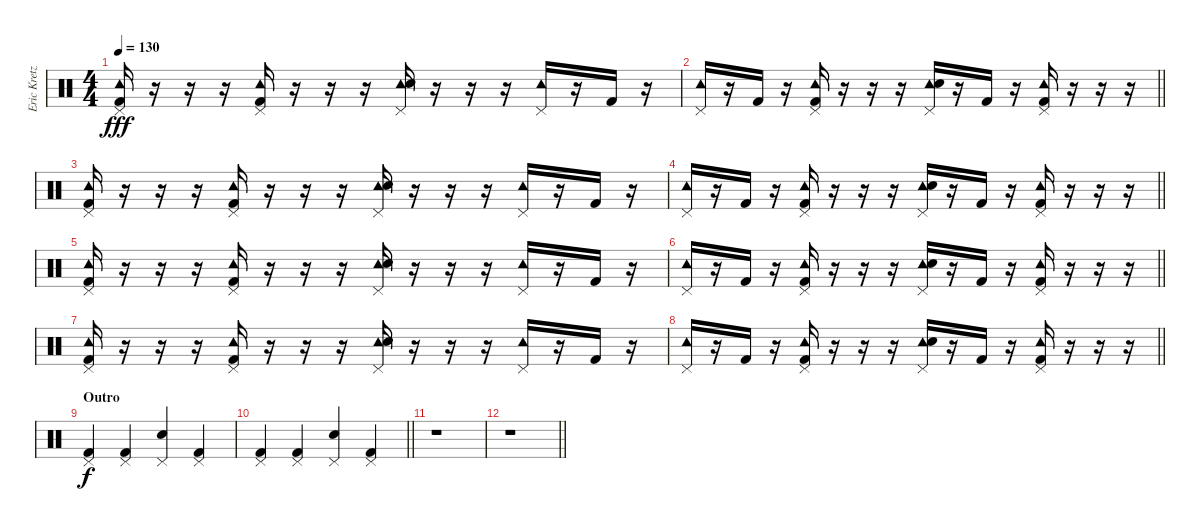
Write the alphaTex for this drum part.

\track ("Eric Kretz (Drums)" "Eric Kretz") {instrument percussion}
\staff {score}
\articulation defaults
\ts (4 4)
\tempo 130
\clef neutral
\ks c
("Pedal Hi-Hat (hit)" "Tambourine (hit)" "Kick (hit) 2").16{dy fff} r.16 r.16 r.16 ("Pedal Hi-Hat (hit)" "Tambourine (hit)" "Kick (hit) 2").16 r.16 r.16 r.16 ("Pedal Hi-Hat (hit)" "Tambourine (hit)" "Electric Snare (hit)").16 r.16 r.16 r.16 ("Pedal Hi-Hat (hit)" "Tambourine (hit)").16 r.16 "Kick (hit) 2".16 r.16 |
\barLineRight lightlight
("Pedal Hi-Hat (hit)" "Tambourine (hit)").16 r.16 "Kick (hit) 2".16 r.16 ("Pedal Hi-Hat (hit)" "Tambourine (hit)" "Kick (hit) 2").16 r.16 r.16 r.16 ("Pedal Hi-Hat (hit)" "Tambourine (hit)" "Electric Snare (hit)").16 r.16 "Kick (hit) 2".16 r.16 ("Pedal Hi-Hat (hit)" "Tambourine (hit)" "Kick (hit) 2").16 r.16 r.16 r.16 |
("Pedal Hi-Hat (hit)" "Tambourine (hit)" "Kick (hit) 2").16 r.16 r.16 r.16 ("Pedal Hi-Hat (hit)" "Tambourine (hit)" "Kick (hit) 2").16 r.16 r.16 r.16 ("Pedal Hi-Hat (hit)" "Tambourine (hit)" "Electric Snare (hit)").16 r.16 r.16 r.16 ("Pedal Hi-Hat (hit)" "Tambourine (hit)").16 r.16 "Kick (hit) 2".16 r.16 |
\barLineRight lightlight
("Pedal Hi-Hat (hit)" "Tambourine (hit)").16 r.16 "Kick (hit) 2".16 r.16 ("Pedal Hi-Hat (hit)" "Tambourine (hit)" "Kick (hit) 2").16 r.16 r.16 r.16 ("Pedal Hi-Hat (hit)" "Tambourine (hit)" "Electric Snare (hit)").16 r.16 "Kick (hit) 2".16 r.16 ("Pedal Hi-Hat (hit)" "Tambourine (hit)" "Kick (hit) 2").16 r.16 r.16 r.16 |
("Pedal Hi-Hat (hit)" "Tambourine (hit)" "Kick (hit) 2").16 r.16 r.16 r.16 ("Pedal Hi-Hat (hit)" "Tambourine (hit)" "Kick (hit) 2").16 r.16 r.16 r.16 ("Pedal Hi-Hat (hit)" "Tambourine (hit)" "Electric Snare (hit)").16 r.16 r.16 r.16 ("Pedal Hi-Hat (hit)" "Tambourine (hit)").16 r.16 "Kick (hit) 2".16 r.16 |
\barLineRight lightlight
("Pedal Hi-Hat (hit)" "Tambourine (hit)").16 r.16 "Kick (hit) 2".16 r.16 ("Pedal Hi-Hat (hit)" "Tambourine (hit)" "Kick (hit) 2").16 r.16 r.16 r.16 ("Pedal Hi-Hat (hit)" "Tambourine (hit)" "Electric Snare (hit)").16 r.16 "Kick (hit) 2".16 r.16 ("Pedal Hi-Hat (hit)" "Tambourine (hit)" "Kick (hit) 2").16 r.16 r.16 r.16 |
("Pedal Hi-Hat (hit)" "Tambourine (hit)" "Kick (hit) 2").16 r.16 r.16 r.16 ("Pedal Hi-Hat (hit)" "Tambourine (hit)" "Kick (hit) 2").16 r.16 r.16 r.16 ("Pedal Hi-Hat (hit)" "Tambourine (hit)" "Electric Snare (hit)").16 r.16 r.16 r.16 ("Pedal Hi-Hat (hit)" "Tambourine (hit)").16 r.16 "Kick (hit) 2".16 r.16 |
\barLineRight lightlight
("Pedal Hi-Hat (hit)" "Tambourine (hit)").16 r.16 "Kick (hit) 2".16 r.16 ("Pedal Hi-Hat (hit)" "Tambourine (hit)" "Kick (hit) 2").16 r.16 r.16 r.16 ("Pedal Hi-Hat (hit)" "Tambourine (hit)" "Electric Snare (hit)").16 r.16 "Kick (hit) 2".16 r.16 ("Pedal Hi-Hat (hit)" "Tambourine (hit)" "Kick (hit) 2").16 r.16 r.16 r.16 |
\section ("" "Outro")
("Pedal Hi-Hat (hit)" "Kick (hit) 2").4{dy f} ("Pedal Hi-Hat (hit)" "Kick (hit) 2").4 ("Pedal Hi-Hat (hit)" "Electric Snare (hit)").4 ("Pedal Hi-Hat (hit)" "Kick (hit) 2").4 |
\barLineRight lightlight
("Pedal Hi-Hat (hit)" "Kick (hit) 2").4 ("Pedal Hi-Hat (hit)" "Kick (hit) 2").4 ("Pedal Hi-Hat (hit)" "Electric Snare (hit)").4 ("Pedal Hi-Hat (hit)" "Kick (hit) 2").4 |
r.1 |
\barLineRight lightlight
r.1
